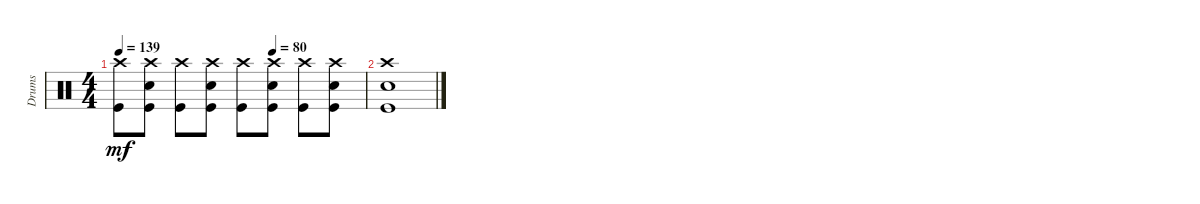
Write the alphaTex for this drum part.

\track ("Drums" "Drums") {instrument percussion}
\staff {score}
\articulation defaults
\ts (4 4)
\tempo 139
\tempo (80 0.625)
\clef neutral
\ks c
("Crash high (hit)" "Kick (hit)").8{dy mf} ("Crash high (hit)" "Snare (hit) 2" "Kick (hit)").8 ("Crash high (hit)" "Kick (hit)").8 ("Crash high (hit)" "Snare (hit) 2" "Kick (hit)").8 ("Crash high (hit)" "Kick (hit)").8 ("Crash high (hit)" "Snare (hit) 2" "Kick (hit)").8 ("Crash high (hit)" "Kick (hit)").8 ("Crash high (hit)" "Snare (hit) 2" "Kick (hit)").8 |
("Crash high (hit)" "Snare (hit) 2" "Kick (hit)").1
